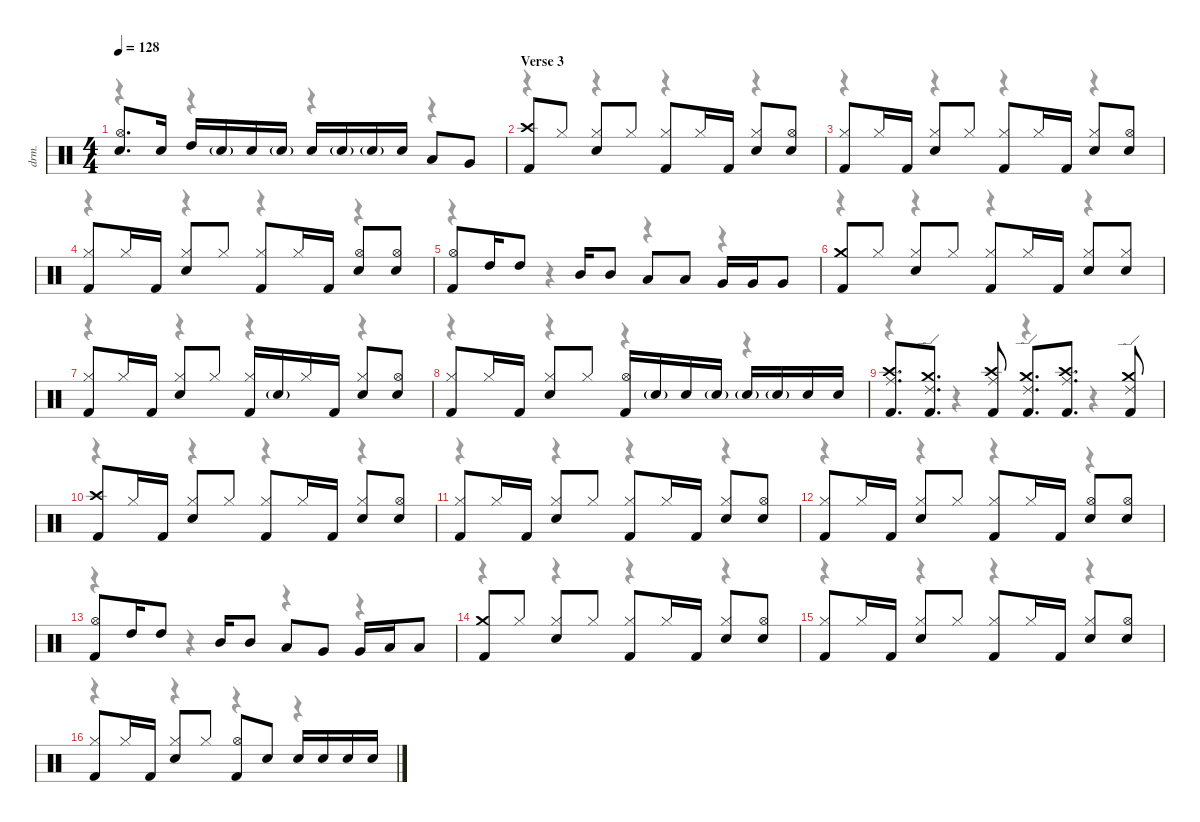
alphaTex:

\defaultSystemsLayout 4
\hideDynamics
\bracketExtendMode nobrackets
\track ("Drums" "drm.") {instrument percussion}
\staff {score}
\articulation defaults
\voice
\ts (4 4)
\tempo 128
\clef neutral
\ks c
("Snare (hit) 2" "Hi-Hat (open)").8{d dy fff} "Snare (hit) 2".16 "High Tom (hit)".16 "Snare (hit) 2"{g}.16{dy mf} "Snare (hit) 2".16{dy fff} "Snare (hit) 2"{g}.16{dy mf} "Snare (hit) 2".16{dy fff} "Snare (hit) 2"{g}.16{dy mf} "Snare (hit) 2"{g}.16 "Snare (hit) 2".16{dy fff} "Low Tom (hit)".8 "Very Low Tom (hit)".8 |
\section ("" "Verse 3")
("Kick (hit) 2" "Crash high (hit)").8 "Hi-Hat (closed)".8{dy p} ("Snare (hit) 2" "Hi-Hat (closed)").8{dy fff} "Hi-Hat (closed)".8{dy p} ("Kick (hit) 2" "Hi-Hat (closed)").8{dy fff} "Hi-Hat (closed)".16{dy p} "Kick (hit) 2".16{dy fff} ("Snare (hit) 2" "Hi-Hat (closed)").8 ("Snare (hit) 2" "Hi-Hat (open)").8 |
("Kick (hit) 2" "Hi-Hat (closed)").8 "Hi-Hat (closed)".16{dy p} "Kick (hit) 2".16{dy fff} ("Snare (hit) 2" "Hi-Hat (closed)").8 "Hi-Hat (closed)".8{dy p} ("Kick (hit) 2" "Hi-Hat (closed)").8{dy fff} "Hi-Hat (closed)".16{dy p} "Kick (hit) 2".16{dy fff} ("Snare (hit) 2" "Hi-Hat (closed)").8 ("Snare (hit) 2" "Hi-Hat (open)").8 |
("Kick (hit) 2" "Hi-Hat (closed)").8 "Hi-Hat (closed)".16{dy p} "Kick (hit) 2".16{dy fff} ("Snare (hit) 2" "Hi-Hat (closed)").8 "Hi-Hat (closed)".8{dy p} ("Kick (hit) 2" "Hi-Hat (closed)").8{dy fff} "Hi-Hat (closed)".16{dy p} "Kick (hit) 2".16{dy fff} ("Snare (hit) 2" "Hi-Hat (open)").8 ("Snare (hit) 2" "Hi-Hat (open)").8 |
("Kick (hit) 2" "Hi-Hat (open)").8 "High Tom (hit)".16 "High Tom (hit)".8 "Mid Tom (hit)".16 "Mid Tom (hit)".8 "Low Tom (hit)".8 "Low Tom (hit)".8 "Very Low Tom (hit)".16 "Very Low Tom (hit)".16 "Very Low Tom (hit)".8 |
("Kick (hit) 2" "Crash medium (hit)").8 "Hi-Hat (closed)".8{dy p} ("Snare (hit) 2" "Hi-Hat (closed)").8{dy fff} "Hi-Hat (closed)".8{dy p} ("Kick (hit) 2" "Hi-Hat (closed)").8{dy fff} "Hi-Hat (closed)".16{dy p} "Kick (hit) 2".16{dy fff} ("Snare (hit) 2" "Hi-Hat (closed)").8 ("Snare (hit) 2" "Hi-Hat (closed)").8 |
("Kick (hit) 2" "Hi-Hat (closed)").8 "Hi-Hat (closed)".16{dy p} "Kick (hit) 2".16{dy fff} ("Snare (hit) 2" "Hi-Hat (closed)").8 "Hi-Hat (closed)".8{dy p} ("Kick (hit) 2" "Hi-Hat (closed)").16{dy fff} "Snare (hit) 2"{g}.16{dy f} "Hi-Hat (closed)".16{dy p} "Kick (hit) 2".16{dy fff} ("Snare (hit) 2" "Hi-Hat (closed)").8 ("Snare (hit) 2" "Hi-Hat (open)").8 |
("Kick (hit) 2" "Hi-Hat (closed)").8 "Hi-Hat (closed)".16{dy p} "Kick (hit) 2".16{dy fff} ("Snare (hit) 2" "Hi-Hat (closed)").8 "Hi-Hat (closed)".8{dy p} ("Kick (hit) 2" "Hi-Hat (open)").16{dy fff} "Snare (hit) 2"{g}.16{dy mf} "Snare (hit) 2".16{dy fff} "Snare (hit) 2"{g}.16{dy mp} "Snare (hit) 2"{g}.16{dy mf} "Snare (hit) 2"{g}.16{dy ff} "Snare (hit) 2".16{dy fff} "Snare (hit) 2".16 |
("Kick (hit) 2" "Ride (middle)" "Crash high (hit)").8{d} ("Kick (hit) 2" "Ride (edge) 2" "Crash medium (hit)").8{d} ("Kick (hit) 2" "Ride (middle)" "Crash high (hit)").8 ("Kick (hit) 2" "Ride (edge) 2" "Crash medium (hit)").8{d} ("Kick (hit) 2" "Ride (middle)" "Crash high (hit)").8{d} ("Kick (hit) 2" "Ride (edge) 2" "Crash medium (hit)").8 |
("Kick (hit) 2" "Crash high (hit)").8 "Hi-Hat (closed)".16{dy p} "Kick (hit) 2".16{dy fff} ("Snare (hit) 2" "Hi-Hat (closed)").8 "Hi-Hat (closed)".8{dy p} ("Kick (hit) 2" "Hi-Hat (closed)").8{dy fff} "Hi-Hat (closed)".16{dy p} "Kick (hit) 2".16{dy fff} ("Snare (hit) 2" "Hi-Hat (closed)").8 ("Snare (hit) 2" "Hi-Hat (open)").8 |
("Kick (hit) 2" "Hi-Hat (closed)").8 "Hi-Hat (closed)".16{dy p} "Kick (hit) 2".16{dy fff} ("Snare (hit) 2" "Hi-Hat (closed)").8 "Hi-Hat (closed)".8{dy p} ("Kick (hit) 2" "Hi-Hat (closed)").8{dy fff} "Hi-Hat (closed)".16{dy p} "Kick (hit) 2".16{dy fff} ("Snare (hit) 2" "Hi-Hat (closed)").8 ("Snare (hit) 2" "Hi-Hat (open)").8 |
("Kick (hit) 2" "Hi-Hat (closed)").8 "Hi-Hat (closed)".16{dy p} "Kick (hit) 2".16{dy fff} ("Snare (hit) 2" "Hi-Hat (closed)").8 "Hi-Hat (closed)".8{dy p} ("Kick (hit) 2" "Hi-Hat (closed)").8{dy fff} "Hi-Hat (closed)".16{dy p} "Kick (hit) 2".16{dy fff} ("Snare (hit) 2" "Hi-Hat (open)").8 ("Snare (hit) 2" "Hi-Hat (open)").8 |
("Kick (hit) 2" "Hi-Hat (open)").8 "High Tom (hit)".16 "High Tom (hit)".8 "Mid Tom (hit)".16 "Mid Tom (hit)".8 "Low Tom (hit)".8 "Very Low Tom (hit)".8 "Very Low Tom (hit)".16 "Low Floor Tom (hit)".16 "Low Floor Tom (hit)".8 |
("Kick (hit) 2" "Crash medium (hit)").8 "Hi-Hat (closed)".8{dy p} ("Snare (hit) 2" "Hi-Hat (closed)").8{dy fff} "Hi-Hat (closed)".8{dy p} ("Kick (hit) 2" "Hi-Hat (closed)").8{dy fff} "Hi-Hat (closed)".16{dy p} "Kick (hit) 2".16{dy fff} ("Snare (hit) 2" "Hi-Hat (closed)").8 ("Snare (hit) 2" "Hi-Hat (open)").8 |
("Kick (hit) 2" "Hi-Hat (closed)").8 "Hi-Hat (closed)".16{dy p} "Kick (hit) 2".16{dy fff} ("Snare (hit) 2" "Hi-Hat (closed)").8 "Hi-Hat (closed)".8{dy p} ("Kick (hit) 2" "Hi-Hat (closed)").8{dy fff} "Hi-Hat (closed)".16{dy p} "Kick (hit) 2".16{dy fff} ("Snare (hit) 2" "Hi-Hat (closed)").8 ("Snare (hit) 2" "Hi-Hat (open)").8 |
("Kick (hit) 2" "Hi-Hat (closed)").8 "Hi-Hat (closed)".16{dy p} "Kick (hit) 2".16{dy fff} ("Snare (hit) 2" "Hi-Hat (closed)").8 "Hi-Hat (closed)".8{dy p} ("Kick (hit) 2" "Hi-Hat (open)").8{dy fff} "Snare (hit) 2".8{dy ff} "Snare (hit) 2".16 "Snare (hit) 2".16 "Snare (hit) 2".16{dy fff} "Snare (hit) 2".16
\voice
\clef neutral
\ottava regular
\simile none
\ks c
r.4{dy mf} r.4 r.4 r.4 |
r.4 r.4 r.4 r.4 |
r.4 r.4 r.4 r.4 |
r.4 r.4 r.4 r.4 |
r.4 r.4 r.4 r.4 |
r.4 r.4 r.4 r.4 |
r.4 r.4 r.4 r.4 |
r.4 r.4 r.4 r.4 |
r.4 r.4 r.4 r.4 |
r.4 r.4 r.4 r.4 |
r.4 r.4 r.4 r.4 |
r.4 r.4 r.4 r.4 |
r.4 r.4 r.4 r.4 |
r.4 r.4 r.4 r.4 |
r.4 r.4 r.4 r.4 |
r.4 r.4 r.4 r.4
